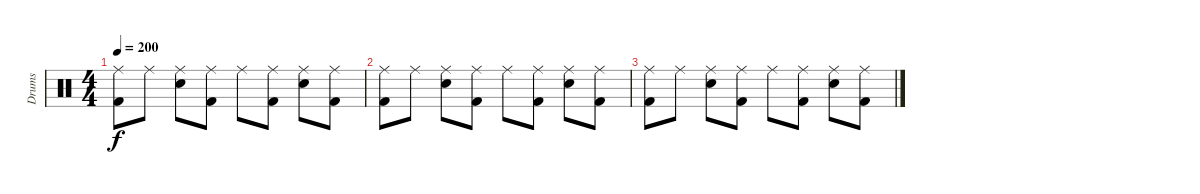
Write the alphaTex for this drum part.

\track ("Drums" "Drums") {instrument percussion}
\staff {score}
\articulation defaults
\ts (4 4)
\tempo 200
\clef neutral
\ks c
("Kick (hit) 2" "Ride (middle)").8{dy f} "Ride (middle)".8 ("Electric Snare (hit)" "Ride (middle)").8 ("Kick (hit) 2" "Ride (middle)").8 "Ride (middle)".8 ("Kick (hit) 2" "Ride (middle)").8 ("Electric Snare (hit)" "Ride (middle)").8 ("Kick (hit) 2" "Ride (middle)").8 |
("Kick (hit) 2" "Ride (middle)").8 "Ride (middle)".8 ("Electric Snare (hit)" "Ride (middle)").8 ("Kick (hit) 2" "Ride (middle)").8 "Ride (middle)".8 ("Kick (hit) 2" "Ride (middle)").8 ("Electric Snare (hit)" "Ride (middle)").8 ("Kick (hit) 2" "Ride (middle)").8 |
("Kick (hit) 2" "Ride (middle)").8 "Ride (middle)".8 ("Electric Snare (hit)" "Ride (middle)").8 ("Kick (hit) 2" "Ride (middle)").8 "Ride (middle)".8 ("Kick (hit) 2" "Ride (middle)").8 ("Electric Snare (hit)" "Ride (middle)").8 ("Kick (hit) 2" "Ride (middle)").8
